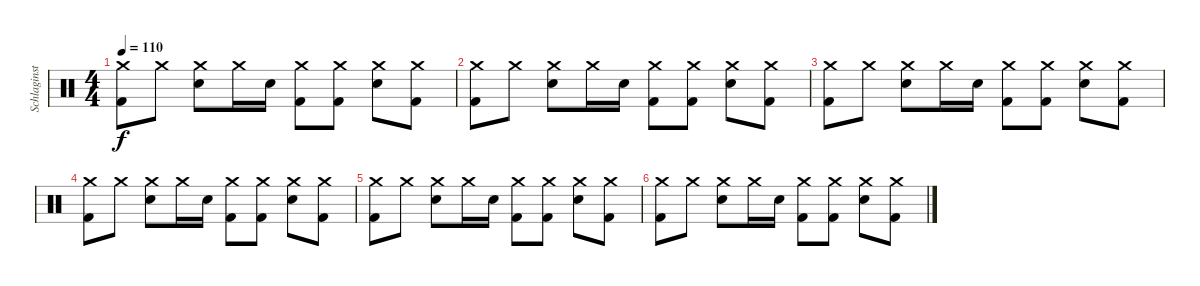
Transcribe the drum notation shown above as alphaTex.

\track ("Schlaginstrumente - Auswahl" "Schlaginst") {instrument percussion}
\staff {score}
\articulation defaults
\ts (4 4)
\tempo 110
\clef neutral
\ks c
("Crash medium (hit)" "Kick (hit) 2").8{dy f} "Crash medium (hit)".8 ("Crash medium (hit)" "Snare (hit) 2").8 "Crash medium (hit)".16 "Snare (hit) 2".16 ("Crash medium (hit)" "Kick (hit) 2").8 ("Crash medium (hit)" "Kick (hit) 2").8 ("Crash medium (hit)" "Snare (hit) 2").8 ("Crash medium (hit)" "Kick (hit) 2").8 |
("Crash medium (hit)" "Kick (hit) 2").8 "Crash medium (hit)".8 ("Crash medium (hit)" "Snare (hit) 2").8 "Crash medium (hit)".16 "Snare (hit) 2".16 ("Crash medium (hit)" "Kick (hit) 2").8 ("Crash medium (hit)" "Kick (hit) 2").8 ("Crash medium (hit)" "Snare (hit) 2").8 ("Crash medium (hit)" "Kick (hit) 2").8 |
("Crash medium (hit)" "Kick (hit) 2").8 "Crash medium (hit)".8 ("Crash medium (hit)" "Snare (hit) 2").8 "Crash medium (hit)".16 "Snare (hit) 2".16 ("Crash medium (hit)" "Kick (hit) 2").8 ("Crash medium (hit)" "Kick (hit) 2").8 ("Crash medium (hit)" "Snare (hit) 2").8 ("Crash medium (hit)" "Kick (hit) 2").8 |
("Crash medium (hit)" "Kick (hit) 2").8 "Crash medium (hit)".8 ("Crash medium (hit)" "Snare (hit) 2").8 "Crash medium (hit)".16 "Snare (hit) 2".16 ("Crash medium (hit)" "Kick (hit) 2").8 ("Crash medium (hit)" "Kick (hit) 2").8 ("Crash medium (hit)" "Snare (hit) 2").8 ("Crash medium (hit)" "Kick (hit) 2").8 |
("Crash medium (hit)" "Kick (hit) 2").8 "Crash medium (hit)".8 ("Crash medium (hit)" "Snare (hit) 2").8 "Crash medium (hit)".16 "Snare (hit) 2".16 ("Crash medium (hit)" "Kick (hit) 2").8 ("Crash medium (hit)" "Kick (hit) 2").8 ("Crash medium (hit)" "Snare (hit) 2").8 ("Crash medium (hit)" "Kick (hit) 2").8 |
("Crash medium (hit)" "Kick (hit) 2").8 "Crash medium (hit)".8 ("Crash medium (hit)" "Snare (hit) 2").8 "Crash medium (hit)".16 "Snare (hit) 2".16 ("Crash medium (hit)" "Kick (hit) 2").8 ("Crash medium (hit)" "Kick (hit) 2").8 ("Crash medium (hit)" "Snare (hit) 2").8 ("Crash medium (hit)" "Kick (hit) 2").8
